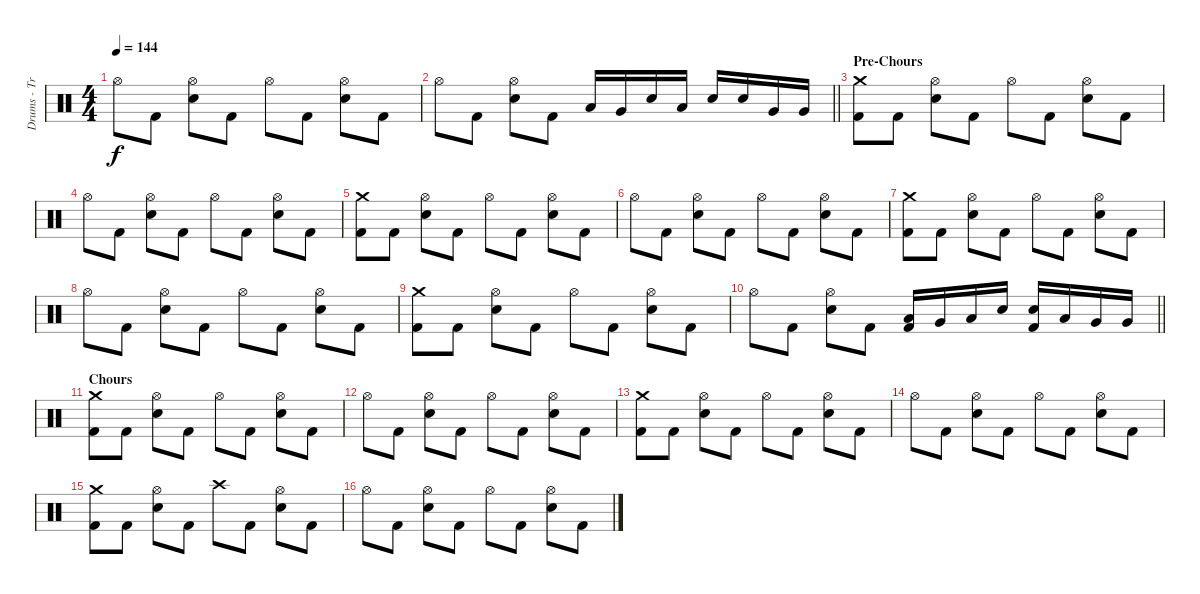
\track ("Drums - Tre Cool" "Drums - Tr") {instrument percussion}
\staff {score}
\articulation defaults
\ts (4 4)
\tempo 144
\clef neutral
\ks c "Hi-Hat (open)".8{dy f} "Kick (hit) 2".8
("Hi-Hat (open)" "Snare (hit) 2").8 "Kick (hit) 2".8 "Hi-Hat (open)".8 "Kick (hit) 2".8 ("Hi-Hat (open)" "Snare (hit) 2").8 "Kick (hit) 2".8 |
\barLineRight lightlight "Hi-Hat (open)".8 "Kick (hit) 2".8
("Hi-Hat (open)" "Snare (hit) 2").8 "Kick (hit) 2".8 "Low Floor Tom (hit)".16 "Very Low Tom (hit)".16 "Snare (hit) 2".16 "Low Floor Tom (hit)".16 "Snare (hit) 2".16 "Snare (hit) 2".16 "Very Low Tom (hit)".16 "Very Low Tom (hit)".16 |
\section ("" "Pre-Chours")
("Crash medium (hit)" "Kick (hit) 2").8 "Kick (hit) 2".8 ("Hi-Hat (open)" "Snare (hit) 2").8 "Kick (hit) 2".8 "Hi-Hat (open)".8 "Kick (hit) 2".8 ("Hi-Hat (open)" "Snare (hit) 2").8 "Kick (hit) 2".8 |
"Hi-Hat (open)".8 "Kick (hit) 2".8 ("Hi-Hat (open)" "Snare (hit) 2").8 "Kick (hit) 2".8 "Hi-Hat (open)".8 "Kick (hit) 2".8 ("Hi-Hat (open)" "Snare (hit) 2").8 "Kick (hit) 2".8 |
("Crash medium (hit)" "Kick (hit) 2").8 "Kick (hit) 2".8 ("Hi-Hat (open)" "Snare (hit) 2").8 "Kick (hit) 2".8 "Hi-Hat (open)".8 "Kick (hit) 2".8 ("Hi-Hat (open)" "Snare (hit) 2").8 "Kick (hit) 2".8 |
"Hi-Hat (open)".8 "Kick (hit) 2".8 ("Hi-Hat (open)" "Snare (hit) 2").8 "Kick (hit) 2".8 "Hi-Hat (open)".8 "Kick (hit) 2".8 ("Hi-Hat (open)" "Snare (hit) 2").8 "Kick (hit) 2".8 |
("Crash medium (hit)" "Kick (hit) 2").8 "Kick (hit) 2".8 ("Hi-Hat (open)" "Snare (hit) 2").8 "Kick (hit) 2".8 "Hi-Hat (open)".8 "Kick (hit) 2".8 ("Hi-Hat (open)" "Snare (hit) 2").8 "Kick (hit) 2".8 |
"Hi-Hat (open)".8 "Kick (hit) 2".8 ("Hi-Hat (open)" "Snare (hit) 2").8 "Kick (hit) 2".8 "Hi-Hat (open)".8 "Kick (hit) 2".8 ("Hi-Hat (open)" "Snare (hit) 2").8 "Kick (hit) 2".8 |
("Crash medium (hit)" "Kick (hit) 2").8 "Kick (hit) 2".8 ("Hi-Hat (open)" "Snare (hit) 2").8 "Kick (hit) 2".8 "Hi-Hat (open)".8 "Kick (hit) 2".8 ("Hi-Hat (open)" "Snare (hit) 2").8 "Kick (hit) 2".8 |
\barLineRight lightlight "Hi-Hat (open)".8 "Kick (hit) 2".8
("Hi-Hat (open)" "Snare (hit) 2").8 "Kick (hit) 2".8 ("Low Floor Tom (hit)" "Kick (hit) 2").16 "Very Low Tom (hit)".16 "Low Floor Tom (hit)".16 "Snare (hit) 2".16 ("Snare (hit) 2" "Kick (hit) 2").16 "Low Floor Tom (hit)".16 "Very Low Tom (hit)".16 "Very Low Tom (hit)".16 |
\section ("" "Chours")
("Crash medium (hit)" "Kick (hit) 2").8 "Kick (hit) 2".8 ("Hi-Hat (open)" "Snare (hit) 2").8 "Kick (hit) 2".8 "Hi-Hat (open)".8 "Kick (hit) 2".8 ("Hi-Hat (open)" "Snare (hit) 2").8 "Kick (hit) 2".8 |
"Hi-Hat (open)".8 "Kick (hit) 2".8 ("Hi-Hat (open)" "Snare (hit) 2").8 "Kick (hit) 2".8 "Hi-Hat (open)".8 "Kick (hit) 2".8 ("Hi-Hat (open)" "Snare (hit) 2").8 "Kick (hit) 2".8 |
("Crash medium (hit)" "Kick (hit) 2").8 "Kick (hit) 2".8 ("Hi-Hat (open)" "Snare (hit) 2").8 "Kick (hit) 2".8 "Hi-Hat (open)".8 "Kick (hit) 2".8 ("Hi-Hat (open)" "Snare (hit) 2").8 "Kick (hit) 2".8 |
"Hi-Hat (open)".8 "Kick (hit) 2".8 ("Hi-Hat (open)" "Snare (hit) 2").8 "Kick (hit) 2".8 "Hi-Hat (open)".8 "Kick (hit) 2".8 ("Hi-Hat (open)" "Snare (hit) 2").8 "Kick (hit) 2".8 |
("Crash medium (hit)" "Kick (hit) 2").8 "Kick (hit) 2".8 ("Hi-Hat (open)" "Snare (hit) 2").8 "Kick (hit) 2".8 "Crash high (hit)".8 "Kick (hit) 2".8 ("Hi-Hat (open)" "Snare (hit) 2").8 "Kick (hit) 2".8 |
"Hi-Hat (open)".8 "Kick (hit) 2".8 ("Hi-Hat (open)" "Snare (hit) 2").8 "Kick (hit) 2".8 "Hi-Hat (open)".8 "Kick (hit) 2".8 ("Hi-Hat (open)" "Snare (hit) 2").8 "Kick (hit) 2".8
